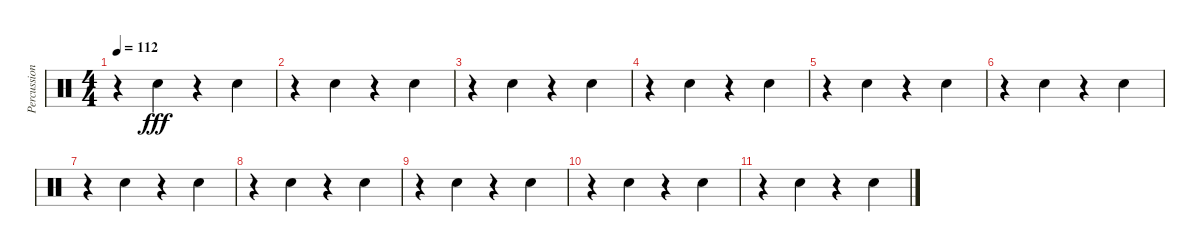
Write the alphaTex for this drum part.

\track ("Percussion" "Percussion") {instrument percussion}
\staff {score}
\articulation defaults
\ts (4 4)
\tempo 112
\clef neutral
\ks c
r.4{dy fff} "Snare (hit) 2".4 r.4 "Snare (hit) 2".4 |
r.4 "Snare (hit) 2".4 r.4 "Snare (hit) 2".4 |
r.4 "Snare (hit) 2".4 r.4 "Snare (hit) 2".4 |
r.4 "Snare (hit) 2".4 r.4 "Snare (hit) 2".4 |
r.4 "Snare (hit) 2".4 r.4 "Snare (hit) 2".4 |
r.4 "Snare (hit) 2".4 r.4 "Snare (hit) 2".4 |
r.4 "Snare (hit) 2".4 r.4 "Snare (hit) 2".4 |
r.4 "Snare (hit) 2".4 r.4 "Snare (hit) 2".4 |
r.4 "Snare (hit) 2".4 r.4 "Snare (hit) 2".4 |
r.4 "Snare (hit) 2".4 r.4 "Snare (hit) 2".4 |
r.4 "Snare (hit) 2".4 r.4 "Snare (hit) 2".4
